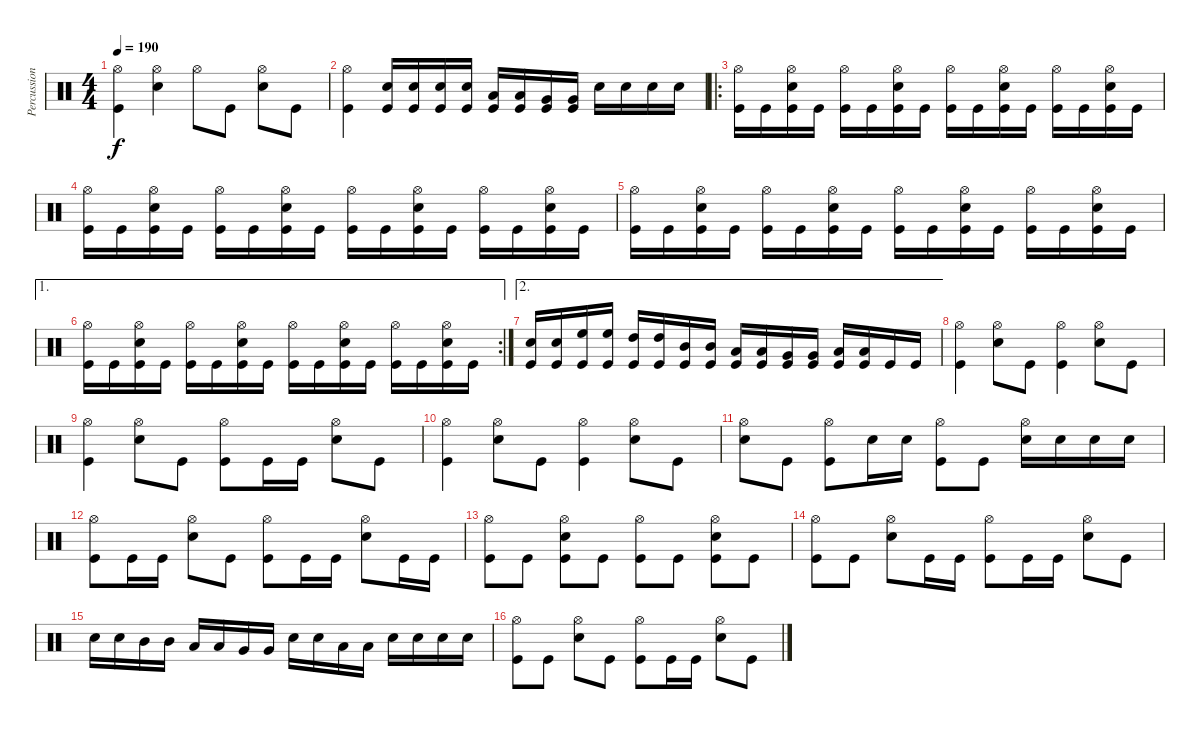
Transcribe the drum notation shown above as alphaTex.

\track ("Percussions" "Percussion") {instrument percussion}
\staff {score}
\articulation defaults
\ts (4 4)
\tempo 190
\clef neutral
\ks c
("Hi-Hat (open)" "Kick (hit)").4{dy f} ("Hi-Hat (open)" "Snare (hit) 2").4 "Hi-Hat (open)".8 "Kick (hit)".8 ("Hi-Hat (open)" "Snare (hit) 2").8 "Kick (hit)".8 |
("Hi-Hat (open)" "Kick (hit)").4 ("Snare (hit) 2" "Kick (hit)").16 ("Snare (hit) 2" "Kick (hit)").16 ("Snare (hit) 2" "Kick (hit)").16 ("Snare (hit) 2" "Kick (hit)").16 ("Low Tom (hit)" "Kick (hit)").16 ("Low Tom (hit)" "Kick (hit)").16 ("Very Low Tom (hit)" "Kick (hit)").16 ("Very Low Tom (hit)" "Kick (hit)").16 "Snare (hit) 2".16 "Snare (hit) 2".16 "Snare (hit) 2".16 "Snare (hit) 2".16 |
\ro
("Hi-Hat (open)" "Kick (hit)").16 "Kick (hit)".16 ("Hi-Hat (open)" "Snare (hit) 2" "Kick (hit)").16 "Kick (hit)".16 ("Hi-Hat (open)" "Kick (hit)").16 "Kick (hit)".16 ("Hi-Hat (open)" "Snare (hit) 2" "Kick (hit)").16 "Kick (hit)".16 ("Hi-Hat (open)" "Kick (hit)").16 "Kick (hit)".16 ("Hi-Hat (open)" "Snare (hit) 2" "Kick (hit)").16 "Kick (hit)".16 ("Hi-Hat (open)" "Kick (hit)").16 "Kick (hit)".16 ("Hi-Hat (open)" "Snare (hit) 2" "Kick (hit)").16 "Kick (hit)".16 |
("Hi-Hat (open)" "Kick (hit)").16 "Kick (hit)".16 ("Hi-Hat (open)" "Snare (hit) 2" "Kick (hit)").16 "Kick (hit)".16 ("Hi-Hat (open)" "Kick (hit)").16 "Kick (hit)".16 ("Hi-Hat (open)" "Snare (hit) 2" "Kick (hit)").16 "Kick (hit)".16 ("Hi-Hat (open)" "Kick (hit)").16 "Kick (hit)".16 ("Hi-Hat (open)" "Snare (hit) 2" "Kick (hit)").16 "Kick (hit)".16 ("Hi-Hat (open)" "Kick (hit)").16 "Kick (hit)".16 ("Hi-Hat (open)" "Snare (hit) 2" "Kick (hit)").16 "Kick (hit)".16 |
("Hi-Hat (open)" "Kick (hit)").16 "Kick (hit)".16 ("Hi-Hat (open)" "Snare (hit) 2" "Kick (hit)").16 "Kick (hit)".16 ("Hi-Hat (open)" "Kick (hit)").16 "Kick (hit)".16 ("Hi-Hat (open)" "Snare (hit) 2" "Kick (hit)").16 "Kick (hit)".16 ("Hi-Hat (open)" "Kick (hit)").16 "Kick (hit)".16 ("Hi-Hat (open)" "Snare (hit) 2" "Kick (hit)").16 "Kick (hit)".16 ("Hi-Hat (open)" "Kick (hit)").16 "Kick (hit)".16 ("Hi-Hat (open)" "Snare (hit) 2" "Kick (hit)").16 "Kick (hit)".16 |
\ae 1
\rc 2
("Hi-Hat (open)" "Kick (hit)").16 "Kick (hit)".16 ("Hi-Hat (open)" "Snare (hit) 2" "Kick (hit)").16 "Kick (hit)".16 ("Hi-Hat (open)" "Kick (hit)").16 "Kick (hit)".16 ("Hi-Hat (open)" "Snare (hit) 2" "Kick (hit)").16 "Kick (hit)".16 ("Hi-Hat (open)" "Kick (hit)").16 "Kick (hit)".16 ("Hi-Hat (open)" "Snare (hit) 2" "Kick (hit)").16 "Kick (hit)".16 ("Hi-Hat (open)" "Kick (hit)").16 "Kick (hit)".16 ("Hi-Hat (open)" "Snare (hit) 2" "Kick (hit)").16 "Kick (hit)".16 |
\ae 2
("Snare (hit) 2" "Kick (hit)").16 ("Snare (hit) 2" "Kick (hit)").16 ("High Floor Tom (hit)" "Kick (hit)").16 ("High Floor Tom (hit)" "Kick (hit)").16 ("High Tom (hit)" "Kick (hit)").16 ("High Tom (hit)" "Kick (hit)").16 ("Mid Tom (hit)" "Kick (hit)").16 ("Mid Tom (hit)" "Kick (hit)").16 ("Low Tom (hit)" "Kick (hit)").16 ("Low Tom (hit)" "Kick (hit)").16 ("Very Low Tom (hit)" "Kick (hit)").16 ("Very Low Tom (hit)" "Kick (hit)").16 ("Low Floor Tom (hit)" "Kick (hit)").16 ("Low Floor Tom (hit)" "Kick (hit)").16 "Kick (hit)".16 "Kick (hit)".16 |
("Hi-Hat (open)" "Kick (hit)").4 ("Hi-Hat (open)" "Snare (hit) 2").8 "Kick (hit)".8 ("Hi-Hat (open)" "Kick (hit)").4 ("Hi-Hat (open)" "Snare (hit) 2").8 "Kick (hit)".8 |
("Hi-Hat (open)" "Kick (hit)").4 ("Hi-Hat (open)" "Snare (hit) 2").8 "Kick (hit)".8 ("Hi-Hat (open)" "Kick (hit)").8 "Kick (hit)".16 "Kick (hit)".16 ("Hi-Hat (open)" "Snare (hit) 2").8 "Kick (hit)".8 |
("Hi-Hat (open)" "Kick (hit)").4 ("Hi-Hat (open)" "Snare (hit) 2").8 "Kick (hit)".8 ("Hi-Hat (open)" "Kick (hit)").4 ("Hi-Hat (open)" "Snare (hit) 2").8 "Kick (hit)".8 |
("Hi-Hat (open)" "Snare (hit) 2").8 "Kick (hit)".8 ("Hi-Hat (open)" "Kick (hit)").8 "Snare (hit) 2".16 "Snare (hit) 2".16 ("Hi-Hat (open)" "Kick (hit)").8 "Kick (hit)".8 ("Hi-Hat (open)" "Snare (hit) 2").16 "Snare (hit) 2".16 "Snare (hit) 2".16 "Snare (hit) 2".16 |
("Hi-Hat (open)" "Kick (hit)").8 "Kick (hit)".16 "Kick (hit)".16 ("Hi-Hat (open)" "Snare (hit) 2").8 "Kick (hit)".8 ("Hi-Hat (open)" "Kick (hit)").8 "Kick (hit)".16 "Kick (hit)".16 ("Hi-Hat (open)" "Snare (hit) 2").8 "Kick (hit)".16 "Kick (hit)".16 |
("Hi-Hat (open)" "Kick (hit)").8 "Kick (hit)".8 ("Hi-Hat (open)" "Snare (hit) 2" "Kick (hit)").8 "Kick (hit)".8 ("Hi-Hat (open)" "Kick (hit)").8 "Kick (hit)".8 ("Hi-Hat (open)" "Snare (hit) 2" "Kick (hit)").8 "Kick (hit)".8 |
("Hi-Hat (open)" "Kick (hit)").8 "Kick (hit)".8 ("Hi-Hat (open)" "Snare (hit) 2").8 "Kick (hit)".16 "Kick (hit)".16 ("Hi-Hat (open)" "Kick (hit)").8 "Kick (hit)".16 "Kick (hit)".16 ("Hi-Hat (open)" "Snare (hit) 2").8 "Kick (hit)".8 |
"Snare (hit) 2".16 "Snare (hit) 2".16 "Mid Tom (hit)".16 "Mid Tom (hit)".16 "Low Tom (hit)".16 "Low Tom (hit)".16 "Very Low Tom (hit)".16 "Very Low Tom (hit)".16 "Snare (hit) 2".16 "Snare (hit) 2".16 "Low Tom (hit)".16 "Low Tom (hit)".16 "Snare (hit) 2".16 "Snare (hit) 2".16 "Snare (hit) 2".16 "Snare (hit) 2".16 |
("Hi-Hat (open)" "Kick (hit)").8 "Kick (hit)".8 ("Hi-Hat (open)" "Snare (hit) 2").8 "Kick (hit)".8 ("Hi-Hat (open)" "Kick (hit)").8 "Kick (hit)".16 "Kick (hit)".16 ("Hi-Hat (open)" "Snare (hit) 2").8 "Kick (hit)".8
